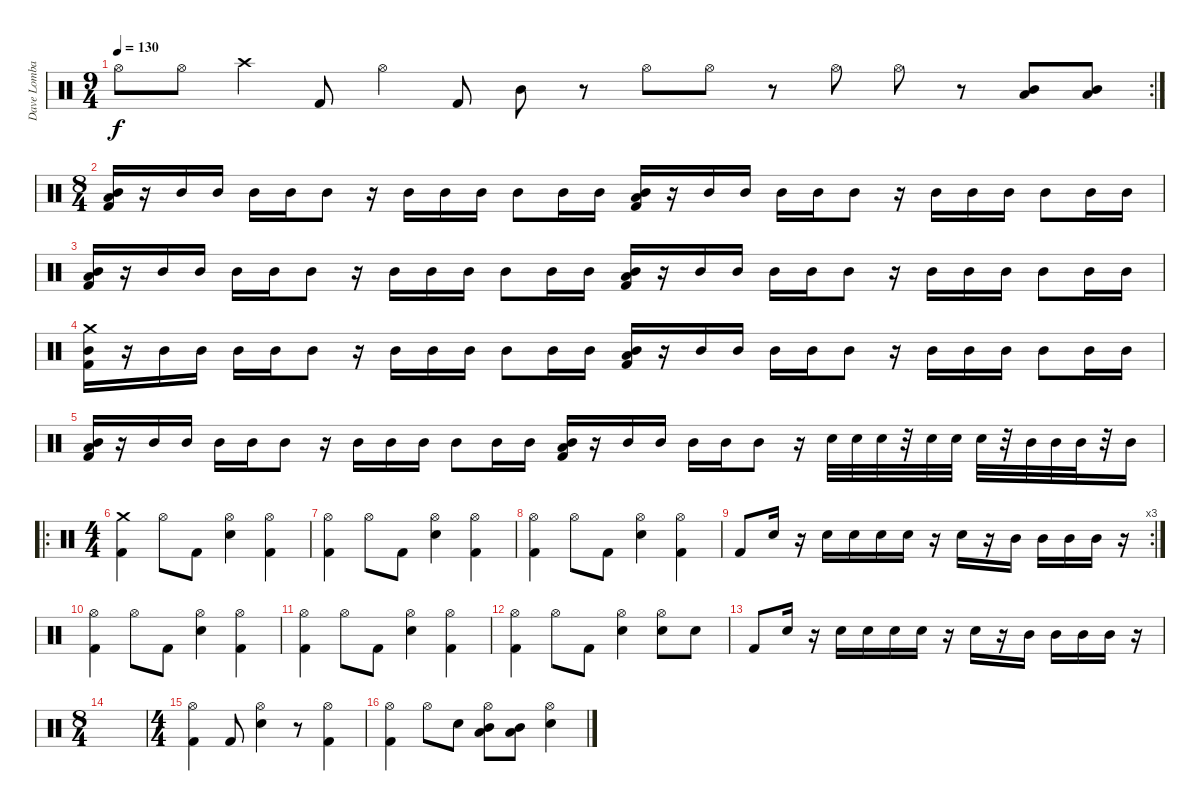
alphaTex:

\track ("Dave Lombardo" "Dave Lomba") {instrument percussion}
\staff {score}
\articulation defaults
\rc 2
\ts (9 4)
\tempo 130
\clef neutral
\ks c "Hi-Hat (open)".8{dy f} "Hi-Hat (open)".8 "Crash high (hit)".4 "Kick (hit) 2".8 "Hi-Hat (open)".4 "Kick (hit) 2".8 "Mid Tom (hit)".8
r.8 "Hi-Hat (open)".8 "Hi-Hat (open)".8 r.8 "Hi-Hat (open)".8 "Hi-Hat (open)".8 r.8 ("Mid Tom (hit)" "Low Tom (hit)").8 ("Mid Tom (hit)" "Low Tom (hit)").8 |
\ts (8 4)
("Mid Tom (hit)" "Low Tom (hit)" "Kick (hit) 2").16 r.16 "Mid Tom (hit)".16 "Mid Tom (hit)".16 "Mid Tom (hit)".16 "Mid Tom (hit)".16 "Mid Tom (hit)".8 r.16 "Mid Tom (hit)".16 "Mid Tom (hit)".16 "Mid Tom (hit)".16 "Mid Tom (hit)".8 "Mid Tom (hit)".16 "Mid Tom (hit)".16 ("Mid Tom (hit)" "Low Tom (hit)" "Kick (hit) 2").16 r.16 "Mid Tom (hit)".16 "Mid Tom (hit)".16 "Mid Tom (hit)".16 "Mid Tom (hit)".16 "Mid Tom (hit)".8 r.16 "Mid Tom (hit)".16 "Mid Tom (hit)".16 "Mid Tom (hit)".16 "Mid Tom (hit)".8 "Mid Tom (hit)".16 "Mid Tom (hit)".16 |
("Mid Tom (hit)" "Low Tom (hit)" "Kick (hit) 2").16 r.16 "Mid Tom (hit)".16 "Mid Tom (hit)".16 "Mid Tom (hit)".16 "Mid Tom (hit)".16 "Mid Tom (hit)".8 r.16 "Mid Tom (hit)".16 "Mid Tom (hit)".16 "Mid Tom (hit)".16 "Mid Tom (hit)".8 "Mid Tom (hit)".16 "Mid Tom (hit)".16 ("Mid Tom (hit)" "Low Tom (hit)" "Kick (hit) 2").16 r.16 "Mid Tom (hit)".16 "Mid Tom (hit)".16 "Mid Tom (hit)".16 "Mid Tom (hit)".16 "Mid Tom (hit)".8 r.16 "Mid Tom (hit)".16 "Mid Tom (hit)".16 "Mid Tom (hit)".16 "Mid Tom (hit)".8 "Mid Tom (hit)".16 "Mid Tom (hit)".16 |
("Mid Tom (hit)" "Crash medium (hit)" "Kick (hit) 2").16 r.16 "Mid Tom (hit)".16 "Mid Tom (hit)".16 "Mid Tom (hit)".16 "Mid Tom (hit)".16 "Mid Tom (hit)".8 r.16 "Mid Tom (hit)".16 "Mid Tom (hit)".16 "Mid Tom (hit)".16 "Mid Tom (hit)".8 "Mid Tom (hit)".16 "Mid Tom (hit)".16 ("Mid Tom (hit)" "Low Tom (hit)" "Kick (hit) 2").16 r.16 "Mid Tom (hit)".16 "Mid Tom (hit)".16 "Mid Tom (hit)".16 "Mid Tom (hit)".16 "Mid Tom (hit)".8 r.16 "Mid Tom (hit)".16 "Mid Tom (hit)".16 "Mid Tom (hit)".16 "Mid Tom (hit)".8 "Mid Tom (hit)".16 "Mid Tom (hit)".16 |
("Mid Tom (hit)" "Low Tom (hit)" "Kick (hit) 2").16 r.16 "Mid Tom (hit)".16 "Mid Tom (hit)".16 "Mid Tom (hit)".16 "Mid Tom (hit)".16 "Mid Tom (hit)".8 r.16 "Mid Tom (hit)".16 "Mid Tom (hit)".16 "Mid Tom (hit)".16 "Mid Tom (hit)".8 "Mid Tom (hit)".16 "Mid Tom (hit)".16 ("Mid Tom (hit)" "Low Tom (hit)" "Kick (hit) 2").16 r.16 "Mid Tom (hit)".16 "Mid Tom (hit)".16 "Mid Tom (hit)".16 "Mid Tom (hit)".16 "Mid Tom (hit)".8 r.16 "Electric Snare (hit)".32 "Electric Snare (hit)".32 "Electric Snare (hit)".32 r.32 "Snare (hit) 2".32 "Snare (hit) 2".32 "Snare (hit) 2".32 r.32 "Mid Tom (hit)".32 "Mid Tom (hit)".32 "Mid Tom (hit)".32 r.32 "Mid Tom (hit)".16 |
\ro
\ts (4 4)
("Crash medium (hit)" "Kick (hit) 2").4 "Hi-Hat (open)".8 "Kick (hit) 2".8 ("Electric Snare (hit)" "Hi-Hat (open)").4 ("Kick (hit) 2" "Hi-Hat (open)").4 |
("Kick (hit) 2" "Hi-Hat (open)").4 "Hi-Hat (open)".8 "Kick (hit) 2".8 ("Electric Snare (hit)" "Hi-Hat (open)").4 ("Kick (hit) 2" "Hi-Hat (open)").4 |
("Kick (hit) 2" "Hi-Hat (open)").4 "Hi-Hat (open)".8 "Kick (hit) 2".8 ("Electric Snare (hit)" "Hi-Hat (open)").4 ("Kick (hit) 2" "Hi-Hat (open)").4 |
\rc 3 "Kick (hit) 2".8 "Electric Snare (hit)".16
r.16 "Snare (hit) 2".16 "Snare (hit) 2".16 "Snare (hit) 2".16 "Snare (hit) 2".16 r.16 "Snare (hit) 2".16 r.16 "Mid Tom (hit)".16 "Mid Tom (hit)".16 "Mid Tom (hit)".16 "Mid Tom (hit)".16 r.16 |
("Kick (hit) 2" "Hi-Hat (open)").4 "Hi-Hat (open)".8 "Kick (hit) 2".8 ("Electric Snare (hit)" "Hi-Hat (open)").4 ("Kick (hit) 2" "Hi-Hat (open)").4 |
("Kick (hit) 2" "Hi-Hat (open)").4 "Hi-Hat (open)".8 "Kick (hit) 2".8 ("Electric Snare (hit)" "Hi-Hat (open)").4 ("Kick (hit) 2" "Hi-Hat (open)").4 |
("Kick (hit) 2" "Hi-Hat (open)").4 "Hi-Hat (open)".8 "Kick (hit) 2".8 ("Electric Snare (hit)" "Hi-Hat (open)").4 ("Electric Snare (hit)" "Hi-Hat (open)").8 "Electric Snare (hit)".8 |
"Kick (hit) 2".8 "Electric Snare (hit)".16 r.16 "Snare (hit) 2".16 "Snare (hit) 2".16 "Snare (hit) 2".16 "Snare (hit) 2".16 r.16 "Snare (hit) 2".16 r.16 "Mid Tom (hit)".16 "Mid Tom (hit)".16 "Mid Tom (hit)".16 "Mid Tom (hit)".16 r.16 |
\ts (8 4)
|
\ts (4 4)
("Kick (hit) 2" "Hi-Hat (open)").4 "Kick (hit) 2".8 ("Electric Snare (hit)" "Hi-Hat (open)").4 r.8 ("Kick (hit) 2" "Hi-Hat (open)").4 |
("Kick (hit) 2" "Hi-Hat (open)").4 "Hi-Hat (open)".8 "Electric Snare (hit)".8 ("Mid Tom (hit)" "Low Tom (hit)" "Hi-Hat (open)").8 ("Mid Tom (hit)" "Low Tom (hit)").8 ("Electric Snare (hit)" "Hi-Hat (open)").4
